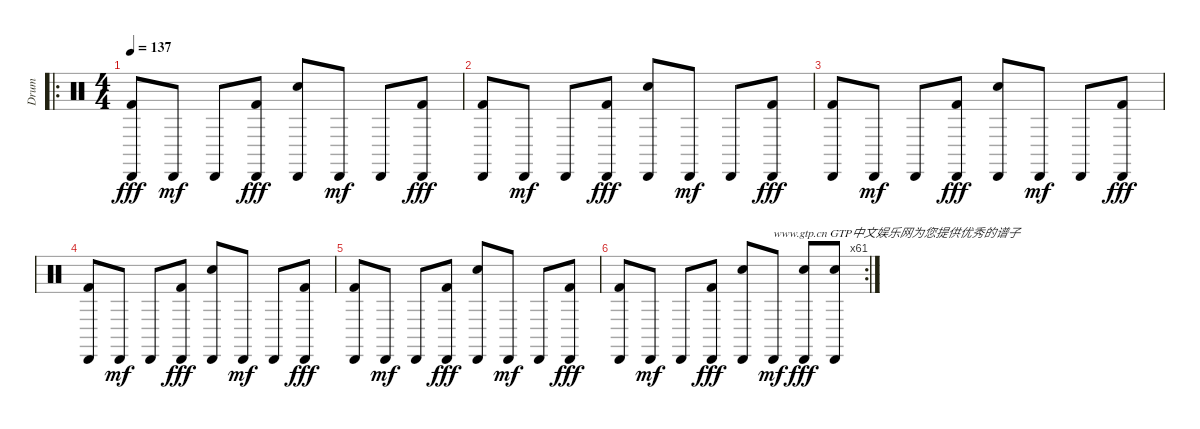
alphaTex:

\track ("Drum" "Drum") {instrument percussion}
\staff {score}
\articulation defaults
\ro
\ts (4 4)
\tempo 137
\clef neutral
\ks c
("Cabasa (hit)" "Kick (hit) 2").8{dy fff} "Cabasa (hit)".8{dy mf} "Cabasa (hit)".8 ("Cabasa (hit)" "Kick (hit) 2").8{dy fff} ("Cabasa (hit)" "Electric Snare (hit)").8 "Cabasa (hit)".8{dy mf} "Cabasa (hit)".8 ("Cabasa (hit)" "Kick (hit) 2").8{dy fff} |
("Cabasa (hit)" "Kick (hit) 2").8 "Cabasa (hit)".8{dy mf} "Cabasa (hit)".8 ("Cabasa (hit)" "Kick (hit) 2").8{dy fff} ("Cabasa (hit)" "Electric Snare (hit)").8 "Cabasa (hit)".8{dy mf} "Cabasa (hit)".8 ("Cabasa (hit)" "Kick (hit) 2").8{dy fff} |
("Cabasa (hit)" "Kick (hit) 2").8 "Cabasa (hit)".8{dy mf} "Cabasa (hit)".8 ("Cabasa (hit)" "Kick (hit) 2").8{dy fff} ("Cabasa (hit)" "Electric Snare (hit)").8 "Cabasa (hit)".8{dy mf} "Cabasa (hit)".8 ("Cabasa (hit)" "Kick (hit) 2").8{dy fff} |
("Cabasa (hit)" "Kick (hit) 2").8 "Cabasa (hit)".8{dy mf} "Cabasa (hit)".8 ("Cabasa (hit)" "Kick (hit) 2").8{dy fff} ("Cabasa (hit)" "Electric Snare (hit)").8 "Cabasa (hit)".8{dy mf} "Cabasa (hit)".8 ("Cabasa (hit)" "Kick (hit) 2").8{dy fff} |
("Cabasa (hit)" "Kick (hit) 2").8 "Cabasa (hit)".8{dy mf} "Cabasa (hit)".8 ("Cabasa (hit)" "Kick (hit) 2").8{dy fff} ("Cabasa (hit)" "Electric Snare (hit)").8 "Cabasa (hit)".8{dy mf} "Cabasa (hit)".8 ("Cabasa (hit)" "Kick (hit) 2").8{dy fff} |
\rc 61
("Cabasa (hit)" "Kick (hit) 2").8 "Cabasa (hit)".8{dy mf} "Cabasa (hit)".8 ("Cabasa (hit)" "Kick (hit) 2").8{dy fff} ("Cabasa (hit)" "Electric Snare (hit)").8 "Cabasa (hit)".8{txt "www.gtp.cn GTP中文娱乐网为您提供优秀的谱子" dy mf} ("Cabasa (hit)" "Electric Snare (hit)").8{dy fff} ("Cabasa (hit)" "Electric Snare (hit)").8
